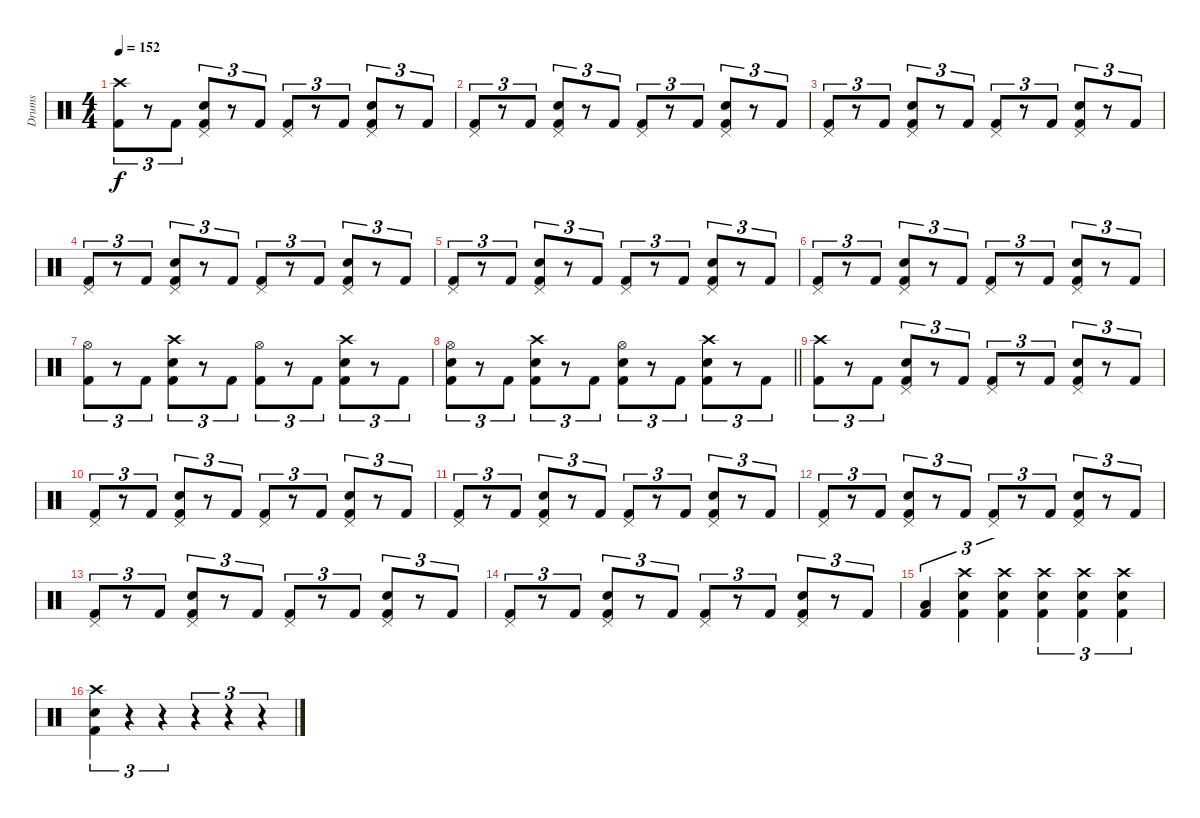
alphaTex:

\track ("Drums" "Drums") {instrument percussion}
\staff {score}
\articulation defaults
\ts (4 4)
\tempo 152
\clef neutral
\ks c
("Crash high (hit)" "Kick (hit) 2").8{tu (3 2) dy f} r.8{tu (3 2)} "Kick (hit) 2".8{tu (3 2)} ("Pedal Hi-Hat (hit)" "Snare (hit) 2" "Kick (hit) 2").8{tu (3 2)} r.8{tu (3 2)} "Kick (hit) 2".8{tu (3 2)} ("Pedal Hi-Hat (hit)" "Kick (hit) 2").8{tu (3 2)} r.8{tu (3 2)} "Kick (hit) 2".8{tu (3 2)} ("Pedal Hi-Hat (hit)" "Snare (hit) 2" "Kick (hit) 2").8{tu (3 2)} r.8{tu (3 2)} "Kick (hit) 2".8{tu (3 2)} |
("Pedal Hi-Hat (hit)" "Kick (hit) 2").8{tu (3 2)} r.8{tu (3 2)} "Kick (hit) 2".8{tu (3 2)} ("Pedal Hi-Hat (hit)" "Snare (hit) 2" "Kick (hit) 2").8{tu (3 2)} r.8{tu (3 2)} "Kick (hit) 2".8{tu (3 2)} ("Pedal Hi-Hat (hit)" "Kick (hit) 2").8{tu (3 2)} r.8{tu (3 2)} "Kick (hit) 2".8{tu (3 2)} ("Pedal Hi-Hat (hit)" "Snare (hit) 2" "Kick (hit) 2").8{tu (3 2)} r.8{tu (3 2)} "Kick (hit) 2".8{tu (3 2)} |
("Pedal Hi-Hat (hit)" "Kick (hit) 2").8{tu (3 2)} r.8{tu (3 2)} "Kick (hit) 2".8{tu (3 2)} ("Pedal Hi-Hat (hit)" "Snare (hit) 2" "Kick (hit) 2").8{tu (3 2)} r.8{tu (3 2)} "Kick (hit) 2".8{tu (3 2)} ("Pedal Hi-Hat (hit)" "Kick (hit) 2").8{tu (3 2)} r.8{tu (3 2)} "Kick (hit) 2".8{tu (3 2)} ("Pedal Hi-Hat (hit)" "Snare (hit) 2" "Kick (hit) 2").8{tu (3 2)} r.8{tu (3 2)} "Kick (hit) 2".8{tu (3 2)} |
("Pedal Hi-Hat (hit)" "Kick (hit) 2").8{tu (3 2)} r.8{tu (3 2)} "Kick (hit) 2".8{tu (3 2)} ("Pedal Hi-Hat (hit)" "Snare (hit) 2" "Kick (hit) 2").8{tu (3 2)} r.8{tu (3 2)} "Kick (hit) 2".8{tu (3 2)} ("Pedal Hi-Hat (hit)" "Kick (hit) 2").8{tu (3 2)} r.8{tu (3 2)} "Kick (hit) 2".8{tu (3 2)} ("Pedal Hi-Hat (hit)" "Snare (hit) 2" "Kick (hit) 2").8{tu (3 2)} r.8{tu (3 2)} "Kick (hit) 2".8{tu (3 2)} |
("Pedal Hi-Hat (hit)" "Kick (hit) 2").8{tu (3 2)} r.8{tu (3 2)} "Kick (hit) 2".8{tu (3 2)} ("Pedal Hi-Hat (hit)" "Snare (hit) 2" "Kick (hit) 2").8{tu (3 2)} r.8{tu (3 2)} "Kick (hit) 2".8{tu (3 2)} ("Pedal Hi-Hat (hit)" "Kick (hit) 2").8{tu (3 2)} r.8{tu (3 2)} "Kick (hit) 2".8{tu (3 2)} ("Pedal Hi-Hat (hit)" "Snare (hit) 2" "Kick (hit) 2").8{tu (3 2)} r.8{tu (3 2)} "Kick (hit) 2".8{tu (3 2)} |
("Pedal Hi-Hat (hit)" "Kick (hit) 2").8{tu (3 2)} r.8{tu (3 2)} "Kick (hit) 2".8{tu (3 2)} ("Pedal Hi-Hat (hit)" "Snare (hit) 2" "Kick (hit) 2").8{tu (3 2)} r.8{tu (3 2)} "Kick (hit) 2".8{tu (3 2)} ("Pedal Hi-Hat (hit)" "Kick (hit) 2").8{tu (3 2)} r.8{tu (3 2)} "Kick (hit) 2".8{tu (3 2)} ("Pedal Hi-Hat (hit)" "Snare (hit) 2" "Kick (hit) 2").8{tu (3 2)} r.8{tu (3 2)} "Kick (hit) 2".8{tu (3 2)} |
("Hi-Hat (open)" "Kick (hit) 2").8{tu (3 2)} r.8{tu (3 2)} "Kick (hit) 2".8{tu (3 2)} ("Crash high (hit)" "Snare (hit) 2" "Kick (hit) 2").8{tu (3 2)} r.8{tu (3 2)} "Kick (hit) 2".8{tu (3 2)} ("Hi-Hat (open)" "Kick (hit) 2").8{tu (3 2)} r.8{tu (3 2)} "Kick (hit) 2".8{tu (3 2)} ("Crash high (hit)" "Snare (hit) 2" "Kick (hit) 2").8{tu (3 2)} r.8{tu (3 2)} "Kick (hit) 2".8{tu (3 2)} |
\barLineRight lightlight
("Hi-Hat (open)" "Snare (hit) 2" "Kick (hit) 2").8{tu (3 2)} r.8{tu (3 2)} "Kick (hit) 2".8{tu (3 2)} ("Crash high (hit)" "Snare (hit) 2" "Kick (hit) 2").8{tu (3 2)} r.8{tu (3 2)} "Kick (hit) 2".8{tu (3 2)} ("Hi-Hat (open)" "Snare (hit) 2" "Kick (hit) 2").8{tu (3 2)} r.8{tu (3 2)} "Kick (hit) 2".8{tu (3 2)} ("Crash high (hit)" "Snare (hit) 2" "Kick (hit) 2").8{tu (3 2)} r.8{tu (3 2)} "Kick (hit) 2".8{tu (3 2)} |
("Crash high (hit)" "Kick (hit) 2").8{tu (3 2)} r.8{tu (3 2)} "Kick (hit) 2".8{tu (3 2)} ("Pedal Hi-Hat (hit)" "Snare (hit) 2" "Kick (hit) 2").8{tu (3 2)} r.8{tu (3 2)} "Kick (hit) 2".8{tu (3 2)} ("Pedal Hi-Hat (hit)" "Kick (hit) 2").8{tu (3 2)} r.8{tu (3 2)} "Kick (hit) 2".8{tu (3 2)} ("Pedal Hi-Hat (hit)" "Snare (hit) 2" "Kick (hit) 2").8{tu (3 2)} r.8{tu (3 2)} "Kick (hit) 2".8{tu (3 2)} |
("Pedal Hi-Hat (hit)" "Kick (hit) 2").8{tu (3 2)} r.8{tu (3 2)} "Kick (hit) 2".8{tu (3 2)} ("Pedal Hi-Hat (hit)" "Snare (hit) 2" "Kick (hit) 2").8{tu (3 2)} r.8{tu (3 2)} "Kick (hit) 2".8{tu (3 2)} ("Pedal Hi-Hat (hit)" "Kick (hit) 2").8{tu (3 2)} r.8{tu (3 2)} "Kick (hit) 2".8{tu (3 2)} ("Pedal Hi-Hat (hit)" "Snare (hit) 2" "Kick (hit) 2").8{tu (3 2)} r.8{tu (3 2)} "Kick (hit) 2".8{tu (3 2)} |
("Pedal Hi-Hat (hit)" "Kick (hit) 2").8{tu (3 2)} r.8{tu (3 2)} "Kick (hit) 2".8{tu (3 2)} ("Pedal Hi-Hat (hit)" "Snare (hit) 2" "Kick (hit) 2").8{tu (3 2)} r.8{tu (3 2)} "Kick (hit) 2".8{tu (3 2)} ("Pedal Hi-Hat (hit)" "Kick (hit) 2").8{tu (3 2)} r.8{tu (3 2)} "Kick (hit) 2".8{tu (3 2)} ("Pedal Hi-Hat (hit)" "Snare (hit) 2" "Kick (hit) 2").8{tu (3 2)} r.8{tu (3 2)} "Kick (hit) 2".8{tu (3 2)} |
("Pedal Hi-Hat (hit)" "Kick (hit) 2").8{tu (3 2)} r.8{tu (3 2)} "Kick (hit) 2".8{tu (3 2)} ("Pedal Hi-Hat (hit)" "Snare (hit) 2" "Kick (hit) 2").8{tu (3 2)} r.8{tu (3 2)} "Kick (hit) 2".8{tu (3 2)} ("Pedal Hi-Hat (hit)" "Kick (hit) 2").8{tu (3 2)} r.8{tu (3 2)} "Kick (hit) 2".8{tu (3 2)} ("Pedal Hi-Hat (hit)" "Snare (hit) 2" "Kick (hit) 2").8{tu (3 2)} r.8{tu (3 2)} "Kick (hit) 2".8{tu (3 2)} |
("Pedal Hi-Hat (hit)" "Kick (hit) 2").8{tu (3 2)} r.8{tu (3 2)} "Kick (hit) 2".8{tu (3 2)} ("Pedal Hi-Hat (hit)" "Snare (hit) 2" "Kick (hit) 2").8{tu (3 2)} r.8{tu (3 2)} "Kick (hit) 2".8{tu (3 2)} ("Pedal Hi-Hat (hit)" "Kick (hit) 2").8{tu (3 2)} r.8{tu (3 2)} "Kick (hit) 2".8{tu (3 2)} ("Pedal Hi-Hat (hit)" "Snare (hit) 2" "Kick (hit) 2").8{tu (3 2)} r.8{tu (3 2)} "Kick (hit) 2".8{tu (3 2)} |
("Pedal Hi-Hat (hit)" "Kick (hit) 2").8{tu (3 2)} r.8{tu (3 2)} "Kick (hit) 2".8{tu (3 2)} ("Pedal Hi-Hat (hit)" "Snare (hit) 2" "Kick (hit) 2").8{tu (3 2)} r.8{tu (3 2)} "Kick (hit) 2".8{tu (3 2)} ("Pedal Hi-Hat (hit)" "Kick (hit) 2").8{tu (3 2)} r.8{tu (3 2)} "Kick (hit) 2".8{tu (3 2)} ("Pedal Hi-Hat (hit)" "Snare (hit) 2" "Kick (hit) 2").8{tu (3 2)} r.8{tu (3 2)} "Kick (hit) 2".8{tu (3 2)} |
("Low Tom (hit)" "Kick (hit) 2").4{tu (3 2)} ("Crash high (hit)" "Snare (hit) 2" "Kick (hit) 2").4{tu (3 2)} ("Crash high (hit)" "Snare (hit) 2" "Kick (hit) 2").4{tu (3 2)} ("Crash high (hit)" "Snare (hit) 2" "Kick (hit) 2").4{tu (3 2)} ("Crash high (hit)" "Snare (hit) 2" "Kick (hit) 2").4{tu (3 2)} ("Crash high (hit)" "Snare (hit) 2" "Kick (hit) 2").4{tu (3 2)} |
("Crash high (hit)" "Snare (hit) 2" "Kick (hit) 2").4{tu (3 2)} r.4{tu (3 2)} r.4{tu (3 2)} r.4{tu (3 2)} r.4{tu (3 2)} r.4{tu (3 2)}
